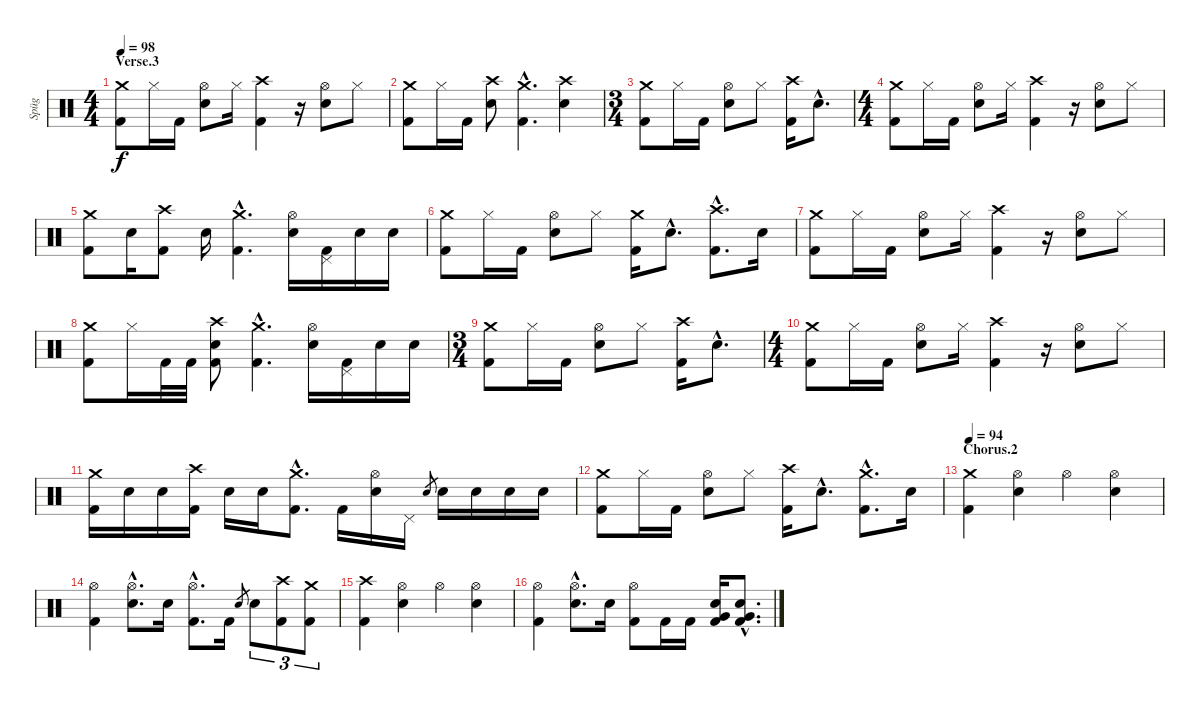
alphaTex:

\track ("Spüg" "Spüg") {instrument percussion}
\staff {score}
\articulation defaults
\ts (4 4)
\section ("" "Verse.3")
\tempo 98
\clef neutral
\ks c
("Crash medium (hit)" "Kick (hit) 2").8{dy f} "Hi-Hat (closed)".16 "Kick (hit) 2".16 ("Hi-Hat (open)" "Electric Snare (hit)").8 "Hi-Hat (closed)".16 ("Crash high (hit)" "Kick (hit) 2").4 r.16 ("Hi-Hat (open)" "Electric Snare (hit)").8 "Hi-Hat (closed)".8 |
("Crash medium (hit)" "Kick (hit) 2").8 "Hi-Hat (closed)".16 "Kick (hit) 2".16 ("Crash high (hit)" "Electric Snare (hit)").8 ("Crash medium (hit)"{hac} "Kick (hit) 2"{hac}).4{d} ("Crash high (hit)" "Electric Snare (hit)").4 |
\ts (3 4)
("Crash medium (hit)" "Kick (hit) 2").8 "Hi-Hat (closed)".16 "Kick (hit) 2".16 ("Hi-Hat (open)" "Electric Snare (hit)").8 "Hi-Hat (closed)".8 ("Crash high (hit)" "Kick (hit) 2").16 "Electric Snare (hit)"{hac}.8{d} |
\ts (4 4)
("Crash medium (hit)" "Kick (hit) 2").8 "Hi-Hat (closed)".16 "Kick (hit) 2".16 ("Hi-Hat (open)" "Electric Snare (hit)").8 "Hi-Hat (closed)".16 ("Crash high (hit)" "Kick (hit) 2").4 r.16 ("Hi-Hat (open)" "Electric Snare (hit)").8 "Hi-Hat (closed)".8 |
("Crash medium (hit)" "Kick (hit) 2").8 "Electric Snare (hit)".16 ("Crash high (hit)" "Kick (hit) 2").8 "Electric Snare (hit)".16 ("Crash medium (hit)"{hac} "Kick (hit) 2"{hac}).4{d} ("Hi-Hat (open)" "Electric Snare (hit)").16 ("Pedal Hi-Hat (hit)" "Kick (hit) 2").16 "Electric Snare (hit)".16 "Electric Snare (hit)".16 |
("Crash medium (hit)" "Kick (hit) 2").8 "Hi-Hat (closed)".16 "Kick (hit) 2".16 ("Hi-Hat (open)" "Electric Snare (hit)").8 "Hi-Hat (closed)".8 ("Crash medium (hit)" "Kick (hit) 2").16 "Electric Snare (hit)"{hac}.8{d} ("Crash high (hit)"{hac} "Kick (hit) 2"{hac}).8{d} "Electric Snare (hit)".16 |
("Crash medium (hit)" "Kick (hit) 2").8 "Hi-Hat (closed)".16 "Kick (hit) 2".16 ("Hi-Hat (open)" "Electric Snare (hit)").8 "Hi-Hat (closed)".16 ("Crash high (hit)" "Kick (hit) 2").4 r.16 ("Hi-Hat (open)" "Electric Snare (hit)").8 "Hi-Hat (closed)".8 |
("Crash medium (hit)" "Kick (hit) 2").8 "Hi-Hat (closed)".16 "Kick (hit) 2".32 "Kick (hit) 2".32 ("Crash high (hit)" "Electric Snare (hit)" "Kick (hit) 2").8 ("Crash medium (hit)"{hac} "Kick (hit) 2"{hac}).4{d} ("Hi-Hat (open)" "Electric Snare (hit)").16 ("Pedal Hi-Hat (hit)" "Kick (hit) 2").16 "Electric Snare (hit)".16 "Electric Snare (hit)".16 |
\ts (3 4)
("Crash medium (hit)" "Kick (hit) 2").8 "Hi-Hat (closed)".16 "Kick (hit) 2".16 ("Hi-Hat (open)" "Electric Snare (hit)").8 "Hi-Hat (closed)".8 ("Crash high (hit)" "Kick (hit) 2").16 "Electric Snare (hit)"{hac}.8{d} |
\ts (4 4)
("Crash medium (hit)" "Kick (hit) 2").8 "Hi-Hat (closed)".16 "Kick (hit) 2".16 ("Hi-Hat (open)" "Electric Snare (hit)").8 "Hi-Hat (closed)".16 ("Crash high (hit)" "Kick (hit) 2").4 r.16 ("Hi-Hat (open)" "Electric Snare (hit)").8 "Hi-Hat (closed)".8 |
("Crash medium (hit)" "Kick (hit) 2").16 "Electric Snare (hit)".16 "Electric Snare (hit)".16 ("Crash high (hit)" "Kick (hit) 2").16 "Electric Snare (hit)".16 "Electric Snare (hit)".16 ("Crash medium (hit)"{hac} "Kick (hit) 2"{hac}).8{d} "Kick (hit) 2".16 ("Hi-Hat (open)" "Electric Snare (hit)").16 "Pedal Hi-Hat (hit)".16 "Electric Snare (hit)".8{gr} "Electric Snare (hit)".16 "Electric Snare (hit)".16 "Electric Snare (hit)".16 "Electric Snare (hit)".16 |
("Crash medium (hit)" "Kick (hit) 2").8 "Hi-Hat (closed)".16 "Kick (hit) 2".16 ("Hi-Hat (open)" "Electric Snare (hit)").8 "Hi-Hat (closed)".8 ("Crash high (hit)" "Kick (hit) 2").16 "Electric Snare (hit)"{hac}.8{d} ("Crash medium (hit)"{hac} "Kick (hit) 2"{hac}).8{d} "Electric Snare (hit)".16 |
\section ("" "Chorus.2")
\tempo 94
("Crash medium (hit)" "Kick (hit) 2").4 ("Hi-Hat (open)" "Electric Snare (hit)").4 "Hi-Hat (open)".4 ("Hi-Hat (open)" "Electric Snare (hit)").4 |
("Hi-Hat (open)" "Kick (hit) 2").4 ("Hi-Hat (open)"{hac} "Electric Snare (hit)"{hac}).8{d} "Electric Snare (hit)".16 ("Hi-Hat (open)"{hac} "Kick (hit) 2"{hac}).8{d} "Kick (hit) 2".16 "Electric Snare (hit)".8{gr} "Electric Snare (hit)".8{tu (3 2)} ("Crash high (hit)" "Kick (hit) 2").8{tu (3 2)} ("Crash medium (hit)" "Kick (hit) 2").8{tu (3 2)} |
("Crash high (hit)" "Kick (hit) 2").4 ("Hi-Hat (open)" "Electric Snare (hit)").4 "Hi-Hat (open)".4 ("Hi-Hat (open)" "Electric Snare (hit)").4 |
("Hi-Hat (open)" "Kick (hit) 2").4 ("Hi-Hat (open)"{hac} "Electric Snare (hit)"{hac}).8{d} "Electric Snare (hit)".16 ("Hi-Hat (open)" "Kick (hit) 2").8 "Kick (hit) 2".16 "Kick (hit) 2".16 ("Electric Snare (hit)" "Very Low Tom (hit)" "Kick (hit) 2").16 ("Electric Snare (hit)"{hac} "Very Low Tom (hit)"{hac} "Kick (hit) 2"{hac}).8{d}
